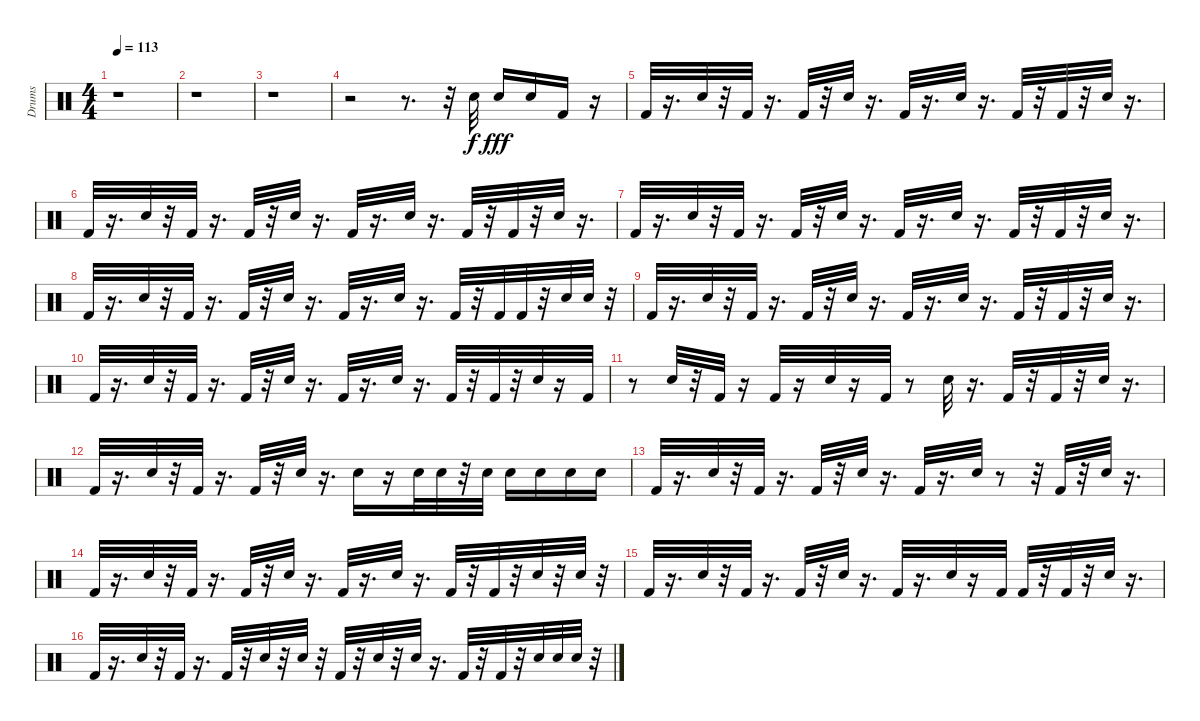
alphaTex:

\track ("Drums" "Drums") {instrument percussion}
\staff {score}
\articulation defaults
\ts (4 4)
\tempo 113
\clef neutral
\ks c
r.1{dy f} |
r.1 |
r.1 |
r.2 r.8{d} r.32 "Electric Snare (hit)".32 "Electric Snare (hit)".16{dy fff} "Electric Snare (hit)".16 "Kick (hit) 2".16 r.16 |
"Kick (hit) 2".32 r.16{d} "Electric Snare (hit)".32 r.32 "Kick (hit) 2".32 r.16{d} "Kick (hit) 2".32 r.32 "Electric Snare (hit)".32 r.16{d} "Kick (hit) 2".32 r.16{d} "Electric Snare (hit)".32 r.16{d} "Kick (hit) 2".32 r.32 "Kick (hit) 2".32 r.32 "Electric Snare (hit)".32 r.16{d} |
"Kick (hit) 2".32 r.16{d} "Electric Snare (hit)".32 r.32 "Kick (hit) 2".32 r.16{d} "Kick (hit) 2".32 r.32 "Electric Snare (hit)".32 r.16{d} "Kick (hit) 2".32 r.16{d} "Electric Snare (hit)".32 r.16{d} "Kick (hit) 2".32 r.32 "Kick (hit) 2".32 r.32 "Electric Snare (hit)".32 r.16{d} |
"Kick (hit) 2".32 r.16{d} "Electric Snare (hit)".32 r.32 "Kick (hit) 2".32 r.16{d} "Kick (hit) 2".32 r.32 "Electric Snare (hit)".32 r.16{d} "Kick (hit) 2".32 r.16{d} "Electric Snare (hit)".32 r.16{d} "Kick (hit) 2".32 r.32 "Kick (hit) 2".32 r.32 "Electric Snare (hit)".32 r.16{d} |
"Kick (hit) 2".32 r.16{d} "Electric Snare (hit)".32 r.32 "Kick (hit) 2".32 r.16{d} "Kick (hit) 2".32 r.32 "Electric Snare (hit)".32 r.16{d} "Kick (hit) 2".32 r.16{d} "Electric Snare (hit)".32 r.16{d} "Kick (hit) 2".32 r.32 "Kick (hit) 2".32 "Kick (hit) 2".32 r.32 "Electric Snare (hit)".32 "Electric Snare (hit)".32 r.32 |
"Kick (hit) 2".32 r.16{d} "Electric Snare (hit)".32 r.32 "Kick (hit) 2".32 r.16{d} "Kick (hit) 2".32 r.32 "Electric Snare (hit)".32 r.16{d} "Kick (hit) 2".32 r.16{d} "Electric Snare (hit)".32 r.16{d} "Kick (hit) 2".32 r.32 "Kick (hit) 2".32 r.32 "Electric Snare (hit)".32 r.16{d} |
"Kick (hit) 2".32 r.16{d} "Electric Snare (hit)".32 r.32 "Kick (hit) 2".32 r.16{d} "Kick (hit) 2".32 r.32 "Electric Snare (hit)".32 r.16{d} "Kick (hit) 2".32 r.16{d} "Electric Snare (hit)".32 r.16{d} "Kick (hit) 2".32 r.32 "Kick (hit) 2".32 r.32 "Electric Snare (hit)".32 r.16 "Kick (hit) 2".32 |
r.8 "Electric Snare (hit)".32 r.32 "Kick (hit) 2".32 r.16 "Kick (hit) 2".32 r.16 "Electric Snare (hit)".32 r.16 "Kick (hit) 2".32 r.8 "Electric Snare (hit)".32 r.16{d} "Kick (hit) 2".32 r.32 "Kick (hit) 2".32 r.32 "Electric Snare (hit)".32 r.16{d} |
"Kick (hit) 2".32 r.16{d} "Electric Snare (hit)".32 r.32 "Kick (hit) 2".32 r.16{d} "Kick (hit) 2".32 r.32 "Electric Snare (hit)".32 r.16{d} "Electric Snare (hit)".16 r.16 "Electric Snare (hit)".32 "Electric Snare (hit)".32 r.32 "Electric Snare (hit)".32 "Electric Snare (hit)".16 "Electric Snare (hit)".16 "Electric Snare (hit)".16 "Electric Snare (hit)".16 |
"Kick (hit) 2".32 r.16{d} "Electric Snare (hit)".32 r.32 "Kick (hit) 2".32 r.16{d} "Kick (hit) 2".32 r.32 "Electric Snare (hit)".32 r.16{d} "Kick (hit) 2".32 r.16{d} "Electric Snare (hit)".32 r.8 r.32 "Kick (hit) 2".32 r.32 "Electric Snare (hit)".32 r.16{d} |
"Kick (hit) 2".32 r.16{d} "Electric Snare (hit)".32 r.32 "Kick (hit) 2".32 r.16{d} "Kick (hit) 2".32 r.32 "Electric Snare (hit)".32 r.16{d} "Kick (hit) 2".32 r.16{d} "Electric Snare (hit)".32 r.16{d} "Kick (hit) 2".32 r.32 "Kick (hit) 2".32 r.32 "Electric Snare (hit)".32 r.32 "Electric Snare (hit)".32 r.32 |
"Kick (hit) 2".32 r.16{d} "Electric Snare (hit)".32 r.32 "Kick (hit) 2".32 r.16{d} "Kick (hit) 2".32 r.32 "Electric Snare (hit)".32 r.16{d} "Kick (hit) 2".32 r.16{d} "Electric Snare (hit)".32 r.16 "Kick (hit) 2".32 "Kick (hit) 2".32 r.32 "Kick (hit) 2".32 r.32 "Electric Snare (hit)".32 r.16{d} |
"Kick (hit) 2".32 r.16{d} "Electric Snare (hit)".32 r.32 "Kick (hit) 2".32 r.16{d} "Kick (hit) 2".32 r.32 "Electric Snare (hit)".32 r.32 "Electric Snare (hit)".32 r.32 "Kick (hit) 2".32 r.32 "Electric Snare (hit)".32 r.32 "Electric Snare (hit)".32 r.16{d} "Kick (hit) 2".32 r.32 "Kick (hit) 2".32 r.32 "Electric Snare (hit)".32 "Electric Snare (hit)".32 "Electric Snare (hit)".32 r.32
